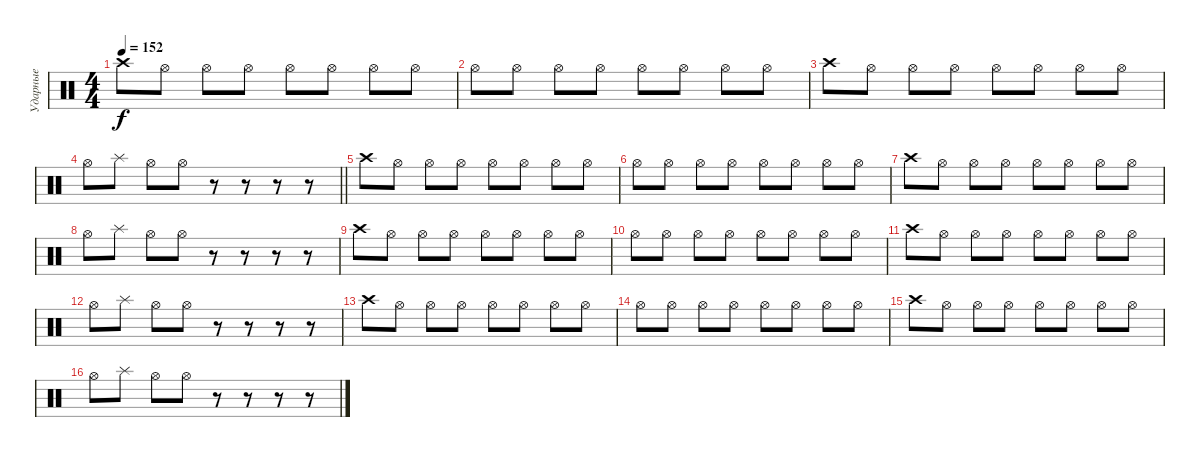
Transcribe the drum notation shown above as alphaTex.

\track ("Ударные" "Ударные") {instrument percussion}
\staff {score}
\articulation defaults
\ts (4 4)
\tempo 152
\clef neutral
\ks c "Crash high (hit)".8{dy f} "Hi-Hat (open)".8 "Hi-Hat (open)".8 "Hi-Hat (open)".8 "Hi-Hat (open)".8 "Hi-Hat (open)".8 "Hi-Hat (open)".8 "Hi-Hat (open)".8
|
"Hi-Hat (open)".8 "Hi-Hat (open)".8 "Hi-Hat (open)".8 "Hi-Hat (open)".8 "Hi-Hat (open)".8 "Hi-Hat (open)".8 "Hi-Hat (open)".8 "Hi-Hat (open)".8 |
"Crash high (hit)".8 "Hi-Hat (open)".8 "Hi-Hat (open)".8 "Hi-Hat (open)".8 "Hi-Hat (open)".8 "Hi-Hat (open)".8 "Hi-Hat (open)".8 "Hi-Hat (open)".8 |
\barLineRight lightlight "Hi-Hat (open)".8 "Splash (hit)".8 "Hi-Hat (open)".8 "Hi-Hat (open)".8
r.8 r.8 r.8 r.8 |
"Crash high (hit)".8 "Hi-Hat (open)".8 "Hi-Hat (open)".8 "Hi-Hat (open)".8 "Hi-Hat (open)".8 "Hi-Hat (open)".8 "Hi-Hat (open)".8 "Hi-Hat (open)".8 |
"Hi-Hat (open)".8 "Hi-Hat (open)".8 "Hi-Hat (open)".8 "Hi-Hat (open)".8 "Hi-Hat (open)".8 "Hi-Hat (open)".8 "Hi-Hat (open)".8 "Hi-Hat (open)".8 |
"Crash high (hit)".8 "Hi-Hat (open)".8 "Hi-Hat (open)".8 "Hi-Hat (open)".8 "Hi-Hat (open)".8 "Hi-Hat (open)".8 "Hi-Hat (open)".8 "Hi-Hat (open)".8 |
"Hi-Hat (open)".8 "Splash (hit)".8 "Hi-Hat (open)".8 "Hi-Hat (open)".8 r.8 r.8 r.8 r.8 |
"Crash high (hit)".8 "Hi-Hat (open)".8 "Hi-Hat (open)".8 "Hi-Hat (open)".8 "Hi-Hat (open)".8 "Hi-Hat (open)".8 "Hi-Hat (open)".8 "Hi-Hat (open)".8 |
"Hi-Hat (open)".8 "Hi-Hat (open)".8 "Hi-Hat (open)".8 "Hi-Hat (open)".8 "Hi-Hat (open)".8 "Hi-Hat (open)".8 "Hi-Hat (open)".8 "Hi-Hat (open)".8 |
"Crash high (hit)".8 "Hi-Hat (open)".8 "Hi-Hat (open)".8 "Hi-Hat (open)".8 "Hi-Hat (open)".8 "Hi-Hat (open)".8 "Hi-Hat (open)".8 "Hi-Hat (open)".8 |
"Hi-Hat (open)".8 "Splash (hit)".8 "Hi-Hat (open)".8 "Hi-Hat (open)".8 r.8 r.8 r.8 r.8 |
"Crash high (hit)".8 "Hi-Hat (open)".8 "Hi-Hat (open)".8 "Hi-Hat (open)".8 "Hi-Hat (open)".8 "Hi-Hat (open)".8 "Hi-Hat (open)".8 "Hi-Hat (open)".8 |
"Hi-Hat (open)".8 "Hi-Hat (open)".8 "Hi-Hat (open)".8 "Hi-Hat (open)".8 "Hi-Hat (open)".8 "Hi-Hat (open)".8 "Hi-Hat (open)".8 "Hi-Hat (open)".8 |
"Crash high (hit)".8 "Hi-Hat (open)".8 "Hi-Hat (open)".8 "Hi-Hat (open)".8 "Hi-Hat (open)".8 "Hi-Hat (open)".8 "Hi-Hat (open)".8 "Hi-Hat (open)".8 |
"Hi-Hat (open)".8 "Splash (hit)".8 "Hi-Hat (open)".8 "Hi-Hat (open)".8 r.8 r.8 r.8 r.8
